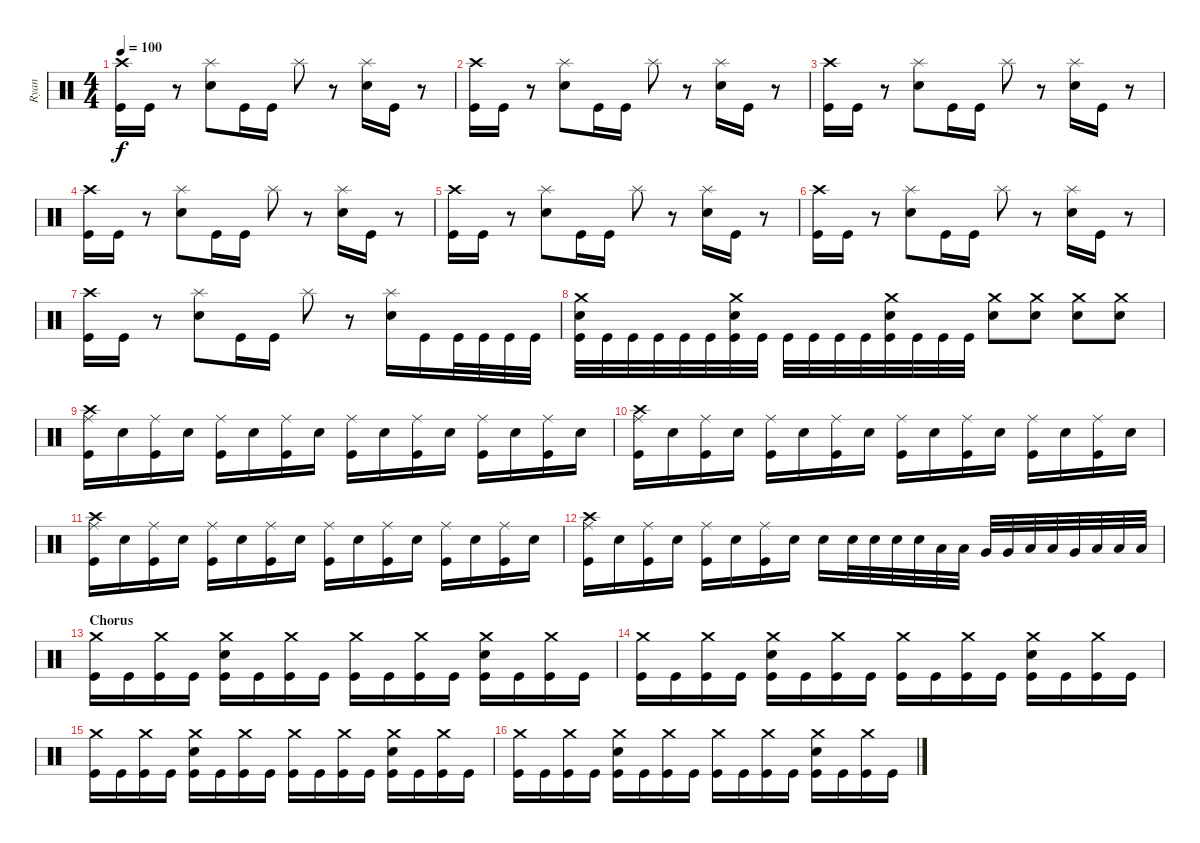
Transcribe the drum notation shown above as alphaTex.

\track ("Ryan" "Ryan") {instrument percussion}
\staff {score}
\articulation defaults
\ts (4 4)
\tempo 100
\clef neutral
\ks c
("Crash high (hit)" "Kick (hit)").16{dy f} "Kick (hit)".16 r.8 ("Splash (hit)" "Electric Snare (hit)").8 "Kick (hit)".16 "Kick (hit)".16 "Splash (hit)".8 r.8 ("Splash (hit)" "Electric Snare (hit)").16 "Kick (hit)".16 r.8 |
("Crash high (hit)" "Kick (hit)").16 "Kick (hit)".16 r.8 ("Splash (hit)" "Electric Snare (hit)").8 "Kick (hit)".16 "Kick (hit)".16 "Splash (hit)".8 r.8 ("Splash (hit)" "Electric Snare (hit)").16 "Kick (hit)".16 r.8 |
("Crash high (hit)" "Kick (hit)").16 "Kick (hit)".16 r.8 ("Splash (hit)" "Electric Snare (hit)").8 "Kick (hit)".16 "Kick (hit)".16 "Splash (hit)".8 r.8 ("Splash (hit)" "Electric Snare (hit)").16 "Kick (hit)".16 r.8 |
("Crash high (hit)" "Kick (hit)").16 "Kick (hit)".16 r.8 ("Splash (hit)" "Electric Snare (hit)").8 "Kick (hit)".16 "Kick (hit)".16 "Splash (hit)".8 r.8 ("Splash (hit)" "Electric Snare (hit)").16 "Kick (hit)".16 r.8 |
("Crash high (hit)" "Kick (hit)").16 "Kick (hit)".16 r.8 ("Splash (hit)" "Electric Snare (hit)").8 "Kick (hit)".16 "Kick (hit)".16 "Splash (hit)".8 r.8 ("Splash (hit)" "Electric Snare (hit)").16 "Kick (hit)".16 r.8 |
("Crash high (hit)" "Kick (hit)").16 "Kick (hit)".16 r.8 ("Splash (hit)" "Electric Snare (hit)").8 "Kick (hit)".16 "Kick (hit)".16 "Splash (hit)".8 r.8 ("Splash (hit)" "Electric Snare (hit)").16 "Kick (hit)".16 r.8 |
("Crash high (hit)" "Kick (hit)").16 "Kick (hit)".16 r.8 ("Splash (hit)" "Electric Snare (hit)").8 "Kick (hit)".16 "Kick (hit)".16 "Splash (hit)".8 r.8 ("Splash (hit)" "Electric Snare (hit)").16 "Kick (hit)".16 "Kick (hit)".32 "Kick (hit)".32 "Kick (hit)".32 "Kick (hit)".32 |
("Crash medium (hit)" "Electric Snare (hit)" "Kick (hit)").32 "Kick (hit)".32 "Kick (hit)".32 "Kick (hit)".32 "Kick (hit)".32 "Kick (hit)".32 ("Crash medium (hit)" "Electric Snare (hit)" "Kick (hit)").32 "Kick (hit)".32 "Kick (hit)".32 "Kick (hit)".32 "Kick (hit)".32 "Kick (hit)".32 ("Crash medium (hit)" "Electric Snare (hit)" "Kick (hit)").32 "Kick (hit)".32 "Kick (hit)".32 "Kick (hit)".32 ("Crash medium (hit)" "Electric Snare (hit)").8 ("Crash medium (hit)" "Electric Snare (hit)").8 ("Crash medium (hit)" "Electric Snare (hit)").8 ("Crash medium (hit)" "Electric Snare (hit)").8 |
("Crash high (hit)" "Ride (middle)" "Kick (hit)").16 "Electric Snare (hit)".16 ("Ride (middle)" "Kick (hit)").16 "Electric Snare (hit)".16 ("Ride (middle)" "Kick (hit)").16 "Electric Snare (hit)".16 ("Ride (middle)" "Kick (hit)").16 "Electric Snare (hit)".16 ("Ride (middle)" "Kick (hit)").16 "Electric Snare (hit)".16 ("Ride (middle)" "Kick (hit)").16 "Electric Snare (hit)".16 ("Ride (middle)" "Kick (hit)").16 "Electric Snare (hit)".16 ("Ride (middle)" "Kick (hit)").16 "Electric Snare (hit)".16 |
("Crash high (hit)" "Ride (middle)" "Kick (hit)").16 "Electric Snare (hit)".16 ("Ride (middle)" "Kick (hit)").16 "Electric Snare (hit)".16 ("Ride (middle)" "Kick (hit)").16 "Electric Snare (hit)".16 ("Ride (middle)" "Kick (hit)").16 "Electric Snare (hit)".16 ("Ride (middle)" "Kick (hit)").16 "Electric Snare (hit)".16 ("Ride (middle)" "Kick (hit)").16 "Electric Snare (hit)".16 ("Ride (middle)" "Kick (hit)").16 "Electric Snare (hit)".16 ("Ride (middle)" "Kick (hit)").16 "Electric Snare (hit)".16 |
("Crash high (hit)" "Ride (middle)" "Kick (hit)").16 "Electric Snare (hit)".16 ("Ride (middle)" "Kick (hit)").16 "Electric Snare (hit)".16 ("Ride (middle)" "Kick (hit)").16 "Electric Snare (hit)".16 ("Ride (middle)" "Kick (hit)").16 "Electric Snare (hit)".16 ("Ride (middle)" "Kick (hit)").16 "Electric Snare (hit)".16 ("Ride (middle)" "Kick (hit)").16 "Electric Snare (hit)".16 ("Ride (middle)" "Kick (hit)").16 "Electric Snare (hit)".16 ("Ride (middle)" "Kick (hit)").16 "Electric Snare (hit)".16 |
("Crash high (hit)" "Ride (middle)" "Kick (hit)").16 "Electric Snare (hit)".16 ("Ride (middle)" "Kick (hit)").16 "Electric Snare (hit)".16 ("Ride (middle)" "Kick (hit)").16 "Electric Snare (hit)".16 ("Ride (middle)" "Kick (hit)").16 "Electric Snare (hit)".16 "Electric Snare (hit)".16 "Electric Snare (hit)".32 "Electric Snare (hit)".32 "Electric Snare (hit)".32 "Electric Snare (hit)".32 "Low Tom (hit)".32 "Low Tom (hit)".32 "Very Low Tom (hit)".32 "Very Low Tom (hit)".32 "Low Floor Tom (hit)".32 "Low Tom (hit)".32 "Very Low Tom (hit)".32 "Low Floor Tom (hit)".32 "Low Tom (hit)".32 "Low Floor Tom (hit)".32 |
\section ("" "Chorus")
("Crash medium (hit)" "Kick (hit)").16 "Kick (hit)".16 ("Crash medium (hit)" "Kick (hit)").16 "Kick (hit)".16 ("Crash medium (hit)" "Electric Snare (hit)" "Kick (hit)").16 "Kick (hit)".16 ("Crash medium (hit)" "Kick (hit)").16 "Kick (hit)".16 ("Crash medium (hit)" "Kick (hit)").16 "Kick (hit)".16 ("Crash medium (hit)" "Kick (hit)").16 "Kick (hit)".16 ("Crash medium (hit)" "Electric Snare (hit)" "Kick (hit)").16 "Kick (hit)".16 ("Crash medium (hit)" "Kick (hit)").16 "Kick (hit)".16 |
("Crash medium (hit)" "Kick (hit)").16 "Kick (hit)".16 ("Crash medium (hit)" "Kick (hit)").16 "Kick (hit)".16 ("Crash medium (hit)" "Electric Snare (hit)" "Kick (hit)").16 "Kick (hit)".16 ("Crash medium (hit)" "Kick (hit)").16 "Kick (hit)".16 ("Crash medium (hit)" "Kick (hit)").16 "Kick (hit)".16 ("Crash medium (hit)" "Kick (hit)").16 "Kick (hit)".16 ("Crash medium (hit)" "Electric Snare (hit)" "Kick (hit)").16 "Kick (hit)".16 ("Crash medium (hit)" "Kick (hit)").16 "Kick (hit)".16 |
("Crash medium (hit)" "Kick (hit)").16 "Kick (hit)".16 ("Crash medium (hit)" "Kick (hit)").16 "Kick (hit)".16 ("Crash medium (hit)" "Electric Snare (hit)" "Kick (hit)").16 "Kick (hit)".16 ("Crash medium (hit)" "Kick (hit)").16 "Kick (hit)".16 ("Crash medium (hit)" "Kick (hit)").16 "Kick (hit)".16 ("Crash medium (hit)" "Kick (hit)").16 "Kick (hit)".16 ("Crash medium (hit)" "Electric Snare (hit)" "Kick (hit)").16 "Kick (hit)".16 ("Crash medium (hit)" "Kick (hit)").16 "Kick (hit)".16 |
("Crash medium (hit)" "Kick (hit)").16 "Kick (hit)".16 ("Crash medium (hit)" "Kick (hit)").16 "Kick (hit)".16 ("Crash medium (hit)" "Electric Snare (hit)" "Kick (hit)").16 "Kick (hit)".16 ("Crash medium (hit)" "Kick (hit)").16 "Kick (hit)".16 ("Crash medium (hit)" "Kick (hit)").16 "Kick (hit)".16 ("Crash medium (hit)" "Kick (hit)").16 "Kick (hit)".16 ("Crash medium (hit)" "Electric Snare (hit)" "Kick (hit)").16 "Kick (hit)".16 ("Crash medium (hit)" "Kick (hit)").16 "Kick (hit)".16
